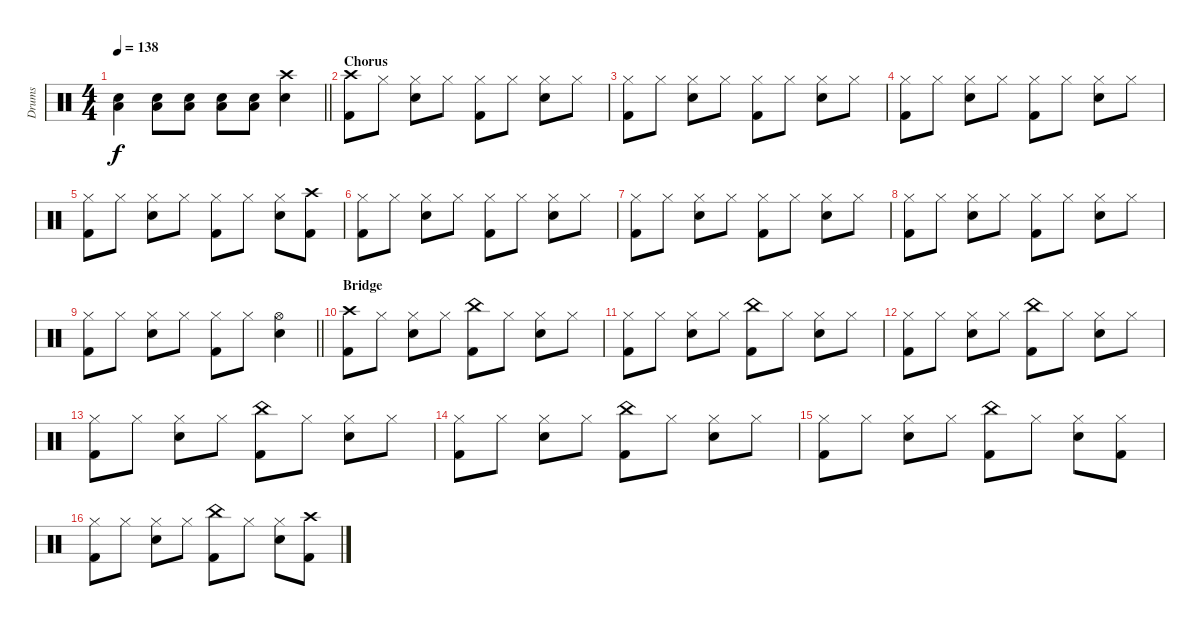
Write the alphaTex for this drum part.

\track ("Drums" "Drums") {instrument percussion}
\staff {score}
\articulation defaults
\ts (4 4)
\tempo 138
\clef neutral
\barLineRight lightlight
\ks c
("Low Floor Tom (hit)" "Snare (hit) 2").4{dy f} ("Low Floor Tom (hit)" "Snare (hit) 2").8 ("Low Floor Tom (hit)" "Snare (hit) 2").8 ("Low Floor Tom (hit)" "Snare (hit) 2").8 ("Low Floor Tom (hit)" "Snare (hit) 2").8 ("Crash high (hit)" "Snare (hit) 2").4 |
\section ("" "Chorus")
("Crash high (hit)" "Kick (hit) 2").8 "Hi-Hat (closed)".8 ("Hi-Hat (closed)" "Snare (hit) 2").8 "Hi-Hat (closed)".8 ("Hi-Hat (closed)" "Kick (hit) 2").8 "Hi-Hat (closed)".8 ("Hi-Hat (closed)" "Snare (hit) 2").8 "Hi-Hat (closed)".8 |
("Hi-Hat (closed)" "Kick (hit) 2").8 "Hi-Hat (closed)".8 ("Hi-Hat (closed)" "Snare (hit) 2").8 "Hi-Hat (closed)".8 ("Hi-Hat (closed)" "Kick (hit) 2").8 "Hi-Hat (closed)".8 ("Hi-Hat (closed)" "Snare (hit) 2").8 "Hi-Hat (closed)".8 |
("Hi-Hat (closed)" "Kick (hit) 2").8 "Hi-Hat (closed)".8 ("Hi-Hat (closed)" "Snare (hit) 2").8 "Hi-Hat (closed)".8 ("Hi-Hat (closed)" "Kick (hit) 2").8 "Hi-Hat (closed)".8 ("Hi-Hat (closed)" "Snare (hit) 2").8 "Hi-Hat (closed)".8 |
("Hi-Hat (closed)" "Kick (hit) 2").8 "Hi-Hat (closed)".8 ("Hi-Hat (closed)" "Snare (hit) 2").8 "Hi-Hat (closed)".8 ("Hi-Hat (closed)" "Kick (hit) 2").8 "Hi-Hat (closed)".8 ("Hi-Hat (closed)" "Snare (hit) 2").8 ("Crash high (hit)" "Kick (hit) 2").8 |
("Hi-Hat (closed)" "Kick (hit) 2").8 "Hi-Hat (closed)".8 ("Hi-Hat (closed)" "Snare (hit) 2").8 "Hi-Hat (closed)".8 ("Hi-Hat (closed)" "Kick (hit) 2").8 "Hi-Hat (closed)".8 ("Hi-Hat (closed)" "Snare (hit) 2").8 "Hi-Hat (closed)".8 |
("Hi-Hat (closed)" "Kick (hit) 2").8 "Hi-Hat (closed)".8 ("Hi-Hat (closed)" "Snare (hit) 2").8 "Hi-Hat (closed)".8 ("Hi-Hat (closed)" "Kick (hit) 2").8 "Hi-Hat (closed)".8 ("Hi-Hat (closed)" "Snare (hit) 2").8 "Hi-Hat (closed)".8 |
("Hi-Hat (closed)" "Kick (hit) 2").8 "Hi-Hat (closed)".8 ("Hi-Hat (closed)" "Snare (hit) 2").8 "Hi-Hat (closed)".8 ("Hi-Hat (closed)" "Kick (hit) 2").8 "Hi-Hat (closed)".8 ("Hi-Hat (closed)" "Snare (hit) 2").8 "Hi-Hat (closed)".8 |
\barLineRight lightlight
("Hi-Hat (closed)" "Kick (hit) 2").8 "Hi-Hat (closed)".8 ("Hi-Hat (closed)" "Snare (hit) 2").8 "Hi-Hat (closed)".8 ("Hi-Hat (closed)" "Kick (hit) 2").8 "Hi-Hat (closed)".8 ("Hi-Hat (open)" "Snare (hit) 2").4 |
\section ("" "Bridge")
("Crash high (hit)" "Kick (hit) 2").8 "Hi-Hat (closed)".8 ("Hi-Hat (closed)" "Snare (hit) 2").8 "Hi-Hat (closed)".8 ("China (hit)" "Kick (hit) 2").8 "Hi-Hat (closed)".8 ("Hi-Hat (closed)" "Snare (hit) 2").8 "Hi-Hat (closed)".8 |
("Hi-Hat (closed)" "Kick (hit) 2").8 "Hi-Hat (closed)".8 ("Hi-Hat (closed)" "Snare (hit) 2").8 "Hi-Hat (closed)".8 ("China (hit)" "Kick (hit) 2").8 "Hi-Hat (closed)".8 ("Hi-Hat (closed)" "Snare (hit) 2").8 "Hi-Hat (closed)".8 |
("Hi-Hat (closed)" "Kick (hit) 2").8 "Hi-Hat (closed)".8 ("Hi-Hat (closed)" "Snare (hit) 2").8 "Hi-Hat (closed)".8 ("China (hit)" "Kick (hit) 2").8 "Hi-Hat (closed)".8 ("Hi-Hat (closed)" "Snare (hit) 2").8 "Hi-Hat (closed)".8 |
("Hi-Hat (closed)" "Kick (hit) 2").8 "Hi-Hat (closed)".8 ("Hi-Hat (closed)" "Snare (hit) 2").8 "Hi-Hat (closed)".8 ("China (hit)" "Kick (hit) 2").8 "Hi-Hat (closed)".8 ("Hi-Hat (closed)" "Snare (hit) 2").8 "Hi-Hat (closed)".8 |
("Hi-Hat (closed)" "Kick (hit) 2").8 "Hi-Hat (closed)".8 ("Hi-Hat (closed)" "Snare (hit) 2").8 "Hi-Hat (closed)".8 ("China (hit)" "Kick (hit) 2").8 "Hi-Hat (closed)".8 ("Hi-Hat (closed)" "Snare (hit) 2").8 "Hi-Hat (closed)".8 |
("Hi-Hat (closed)" "Kick (hit) 2").8 "Hi-Hat (closed)".8 ("Hi-Hat (closed)" "Snare (hit) 2").8 "Hi-Hat (closed)".8 ("China (hit)" "Kick (hit) 2").8 "Hi-Hat (closed)".8 ("Hi-Hat (closed)" "Snare (hit) 2").8 ("Hi-Hat (closed)" "Kick (hit) 2").8 |
("Hi-Hat (closed)" "Kick (hit) 2").8 "Hi-Hat (closed)".8 ("Hi-Hat (closed)" "Snare (hit) 2").8 "Hi-Hat (closed)".8 ("China (hit)" "Kick (hit) 2").8 "Hi-Hat (closed)".8 ("Hi-Hat (closed)" "Snare (hit) 2").8 ("Crash high (hit)" "Kick (hit) 2").8
